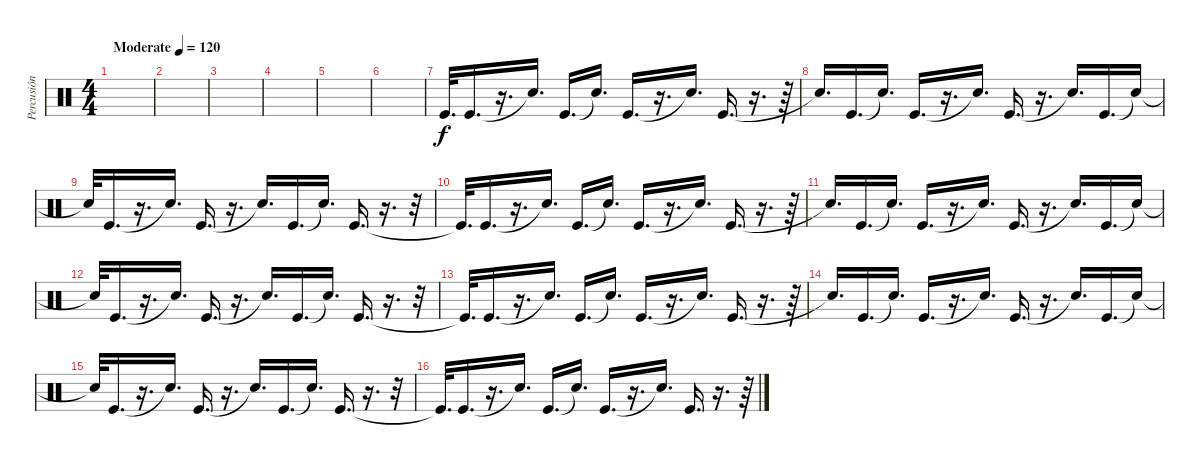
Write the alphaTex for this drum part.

\track ("Percusión" "Percusión") {instrument percussion}
\staff {score}
\articulation defaults
\ts (4 4)
\tempo (120 "Moderate")
\clef neutral
\ks c
|
|
|
|
|
|
"Kick (hit)".32{d} "Kick (hit)".16{d} r.16{d} "Snare (hit)"{t}.16{d} "Kick (hit)".16{d} "Snare (hit)"{t}.16{d} "Kick (hit)".16{d} r.16{d} "Snare (hit)"{t}.16{d} "Kick (hit)".16{d} r.16{d} r.64 |
"Snare (hit)"{t}.16{d} "Kick (hit)".16{d} "Snare (hit)"{t}.16{d} "Kick (hit)".16{d} r.16{d} "Snare (hit)"{t}.16{d} "Kick (hit)".16{d} r.16{d} "Snare (hit)"{t}.16{d} "Kick (hit)".16{d} "Snare (hit)"{t}.16 |
"Snare (hit)"{t}.32 "Kick (hit)".16{d} r.16{d} "Snare (hit)"{t}.16{d} "Kick (hit)".16{d} r.16{d} "Snare (hit)"{t}.16{d} "Kick (hit)".16{d} "Snare (hit)"{t}.16{d} "Kick (hit)".16{d} r.16{d} r.32 |
"Kick (hit)"{t}.32{d} "Kick (hit)".16{d} r.16{d} "Snare (hit)"{t}.16{d} "Kick (hit)".16{d} "Snare (hit)"{t}.16{d} "Kick (hit)".16{d} r.16{d} "Snare (hit)"{t}.16{d} "Kick (hit)".16{d} r.16{d} r.64 |
"Snare (hit)"{t}.16{d} "Kick (hit)".16{d} "Snare (hit)"{t}.16{d} "Kick (hit)".16{d} r.16{d} "Snare (hit)"{t}.16{d} "Kick (hit)".16{d} r.16{d} "Snare (hit)"{t}.16{d} "Kick (hit)".16{d} "Snare (hit)"{t}.16 |
"Snare (hit)"{t}.32 "Kick (hit)".16{d} r.16{d} "Snare (hit)"{t}.16{d} "Kick (hit)".16{d} r.16{d} "Snare (hit)"{t}.16{d} "Kick (hit)".16{d} "Snare (hit)"{t}.16{d} "Kick (hit)".16{d} r.16{d} r.32 |
"Kick (hit)"{t}.32{d} "Kick (hit)".16{d} r.16{d} "Snare (hit)"{t}.16{d} "Kick (hit)".16{d} "Snare (hit)"{t}.16{d} "Kick (hit)".16{d} r.16{d} "Snare (hit)"{t}.16{d} "Kick (hit)".16{d} r.16{d} r.64 |
"Snare (hit)"{t}.16{d} "Kick (hit)".16{d} "Snare (hit)"{t}.16{d} "Kick (hit)".16{d} r.16{d} "Snare (hit)"{t}.16{d} "Kick (hit)".16{d} r.16{d} "Snare (hit)"{t}.16{d} "Kick (hit)".16{d} "Snare (hit)"{t}.16 |
"Snare (hit)"{t}.32 "Kick (hit)".16{d} r.16{d} "Snare (hit)"{t}.16{d} "Kick (hit)".16{d} r.16{d} "Snare (hit)"{t}.16{d} "Kick (hit)".16{d} "Snare (hit)"{t}.16{d} "Kick (hit)".16{d} r.16{d} r.32 |
"Kick (hit)"{t}.32{d} "Kick (hit)".16{d} r.16{d} "Snare (hit)"{t}.16{d} "Kick (hit)".16{d} "Snare (hit)"{t}.16{d} "Kick (hit)".16{d} r.16{d} "Snare (hit)"{t}.16{d} "Kick (hit)".16{d} r.16{d} r.64
